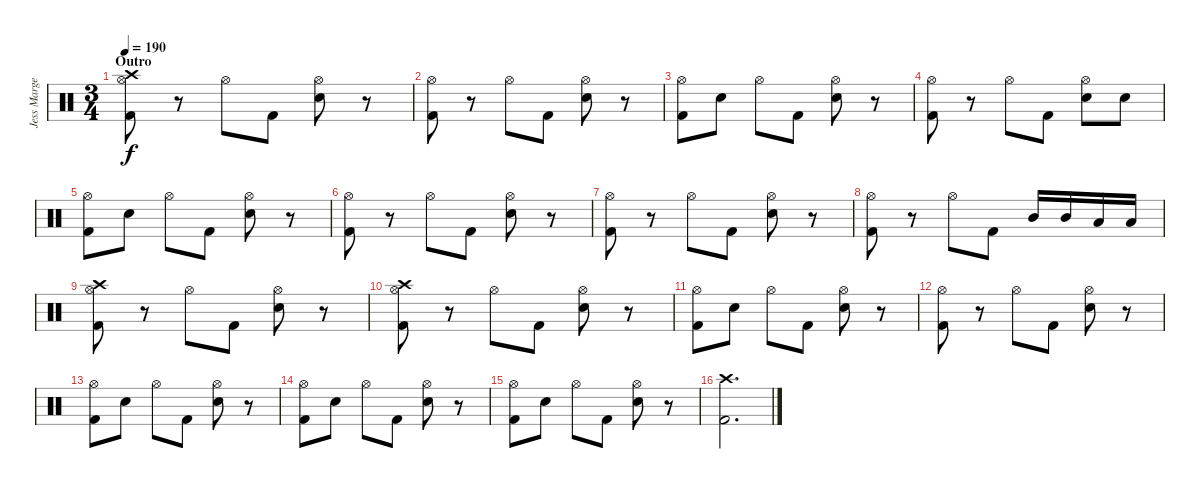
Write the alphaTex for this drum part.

\track ("Jess Margera" "Jess Marge") {instrument percussion}
\staff {score}
\articulation defaults
\ts (3 4)
\section ("" "Outro")
\tempo 190
\clef neutral
\ks c
("Crash high (hit)" "Hi-Hat (open)" "Kick (hit) 2").8{dy f} r.8 "Hi-Hat (open)".8 "Kick (hit) 2".8 ("Hi-Hat (open)" "Electric Snare (hit)").8 r.8 |
("Hi-Hat (open)" "Kick (hit) 2").8 r.8 "Hi-Hat (open)".8 "Kick (hit) 2".8 ("Hi-Hat (open)" "Electric Snare (hit)").8 r.8 |
("Hi-Hat (open)" "Kick (hit) 2").8 "Electric Snare (hit)".8 "Hi-Hat (open)".8 "Kick (hit) 2".8 ("Hi-Hat (open)" "Electric Snare (hit)").8 r.8 |
("Hi-Hat (open)" "Kick (hit) 2").8 r.8 "Hi-Hat (open)".8 "Kick (hit) 2".8 ("Hi-Hat (open)" "Electric Snare (hit)").8 "Electric Snare (hit)".8 |
("Hi-Hat (open)" "Kick (hit) 2").8 "Electric Snare (hit)".8 "Hi-Hat (open)".8 "Kick (hit) 2".8 ("Hi-Hat (open)" "Electric Snare (hit)").8 r.8 |
("Hi-Hat (open)" "Kick (hit) 2").8 r.8 "Hi-Hat (open)".8 "Kick (hit) 2".8 ("Hi-Hat (open)" "Electric Snare (hit)").8 r.8 |
("Hi-Hat (open)" "Kick (hit) 2").8 r.8 "Hi-Hat (open)".8 "Kick (hit) 2".8 ("Hi-Hat (open)" "Electric Snare (hit)").8 r.8 |
("Hi-Hat (open)" "Kick (hit) 2").8 r.8 "Hi-Hat (open)".8 "Kick (hit) 2".8 "Mid Tom (hit)".16 "Mid Tom (hit)".16 "Low Tom (hit)".16 "Low Tom (hit)".16 |
("Crash high (hit)" "Hi-Hat (open)" "Kick (hit) 2").8 r.8 "Hi-Hat (open)".8 "Kick (hit) 2".8 ("Hi-Hat (open)" "Electric Snare (hit)").8 r.8 |
("Crash high (hit)" "Hi-Hat (open)" "Kick (hit) 2").8 r.8 "Hi-Hat (open)".8 "Kick (hit) 2".8 ("Hi-Hat (open)" "Electric Snare (hit)").8 r.8 |
("Hi-Hat (open)" "Kick (hit) 2").8 "Electric Snare (hit)".8 "Hi-Hat (open)".8 "Kick (hit) 2".8 ("Hi-Hat (open)" "Electric Snare (hit)").8 r.8 |
("Hi-Hat (open)" "Kick (hit) 2").8 r.8 "Hi-Hat (open)".8 "Kick (hit) 2".8 ("Hi-Hat (open)" "Electric Snare (hit)").8 r.8 |
("Hi-Hat (open)" "Kick (hit) 2").8 "Electric Snare (hit)".8 "Hi-Hat (open)".8 "Kick (hit) 2".8 ("Hi-Hat (open)" "Electric Snare (hit)").8 r.8 |
("Hi-Hat (open)" "Kick (hit) 2").8 "Electric Snare (hit)".8 "Hi-Hat (open)".8 "Kick (hit) 2".8 ("Hi-Hat (open)" "Electric Snare (hit)").8 r.8 |
("Hi-Hat (open)" "Kick (hit) 2").8 "Electric Snare (hit)".8 "Hi-Hat (open)".8 "Kick (hit) 2".8 ("Hi-Hat (open)" "Electric Snare (hit)").8 r.8 |
("Crash high (hit)" "Kick (hit) 2").2{d}
